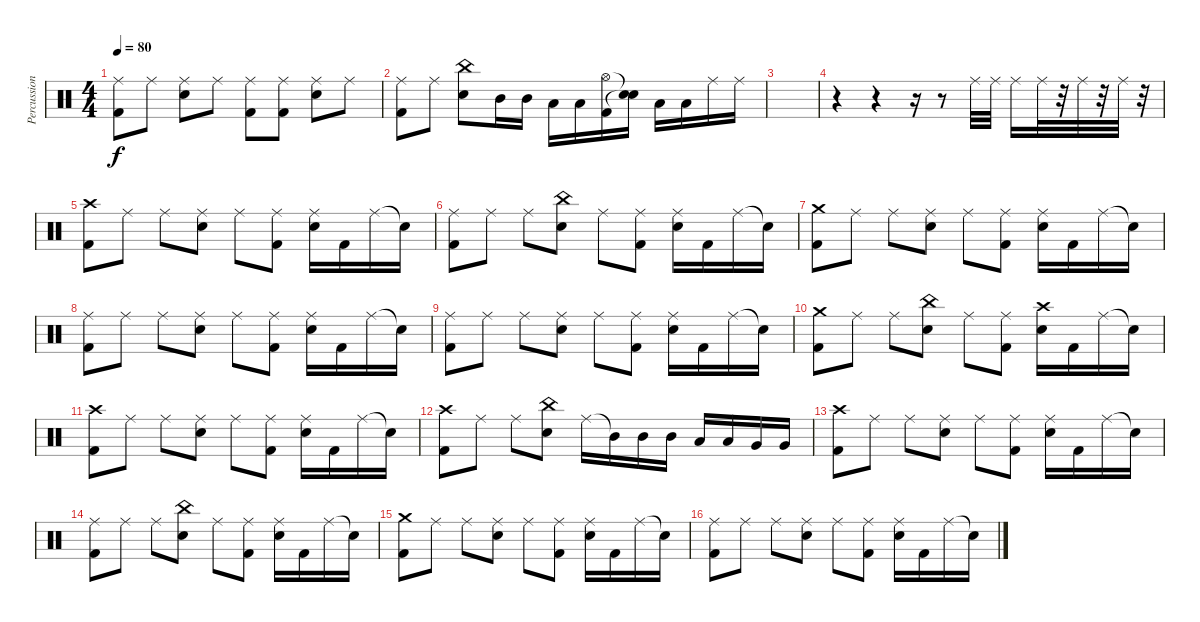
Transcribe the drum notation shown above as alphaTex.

\track ("Percussion" "Percussion") {instrument percussion}
\staff {score}
\articulation defaults
\ts (4 4)
\tempo 80
\clef neutral
\ks c
("Kick (hit) 2" "Ride (middle)").8{dy f} "Ride (middle)".8 ("Electric Snare (hit)" "Ride (middle)").8 "Ride (middle)".8 ("Kick (hit) 2" "Ride (middle)").8 ("Kick (hit) 2" "Ride (middle)").8 ("Electric Snare (hit)" "Ride (middle)").8 "Ride (middle)".8 |
("Kick (hit) 2" "Ride (middle)").8 "Ride (middle)".8 ("Electric Snare (hit)" "China (hit)").8 "Mid Tom (hit)".16 "Mid Tom (hit)".16 "Low Tom (hit)".16 "Low Tom (hit)".16 ("Kick (hit) 2" "Hi-Hat (open)").16 ("Snare (hit)"{t} "Snare (hit)"{t}).16 "Low Tom (hit)".16 "Low Tom (hit)".16 "Ride (middle)".16 "Ride (middle)".16 |
|
r.4 r.4 r.16 r.8 "Ride (middle)".32 "Ride (middle)".32 "Ride (middle)".16 "Ride (middle)".32 r.32 "Ride (middle)".32 r.32 "Ride (middle)".32 r.32 |
("Kick (hit) 2" "Crash high (hit)").8 "Ride (middle)".8 "Ride (middle)".8 ("Electric Snare (hit)" "Ride (middle)").8 "Ride (middle)".8 ("Kick (hit) 2" "Ride (middle)").8 ("Electric Snare (hit)" "Ride (middle)").16 "Kick (hit) 2".16 "Ride (middle)".16 "Snare (hit)"{t}.16 |
("Kick (hit) 2" "Ride (middle)").8 "Ride (middle)".8 "Ride (middle)".8 ("Electric Snare (hit)" "China (hit)").8 "Ride (middle)".8 ("Kick (hit) 2" "Ride (middle)").8 ("Electric Snare (hit)" "Ride (middle)").16 "Kick (hit) 2".16 "Ride (middle)".16 "Snare (hit)"{t}.16 |
("Kick (hit) 2" "Crash medium (hit)").8 "Ride (middle)".8 "Ride (middle)".8 ("Electric Snare (hit)" "Ride (middle)").8 "Ride (middle)".8 ("Kick (hit) 2" "Ride (middle)").8 ("Electric Snare (hit)" "Ride (middle)").16 "Kick (hit) 2".16 "Ride (middle)".16 "Snare (hit)"{t}.16 |
("Kick (hit) 2" "Ride (middle)").8 "Ride (middle)".8 "Ride (middle)".8 ("Electric Snare (hit)" "Ride (middle)").8 "Ride (middle)".8 ("Kick (hit) 2" "Ride (middle)").8 ("Electric Snare (hit)" "Ride (middle)").16 "Kick (hit) 2".16 "Ride (middle)".16 "Snare (hit)"{t}.16 |
("Kick (hit) 2" "Ride (middle)").8 "Ride (middle)".8 "Ride (middle)".8 ("Electric Snare (hit)" "Ride (middle)").8 "Ride (middle)".8 ("Kick (hit) 2" "Ride (middle)").8 ("Electric Snare (hit)" "Ride (middle)").16 "Kick (hit) 2".16 "Ride (middle)".16 "Snare (hit)"{t}.16 |
("Kick (hit) 2" "Crash medium (hit)").8 "Ride (middle)".8 "Ride (middle)".8 ("Electric Snare (hit)" "China (hit)").8 "Ride (middle)".8 ("Kick (hit) 2" "Ride (middle)").8 ("Electric Snare (hit)" "Crash high (hit)").16 "Kick (hit) 2".16 "Ride (middle)".16 "Snare (hit)"{t}.16 |
("Kick (hit) 2" "Crash high (hit)").8 "Ride (middle)".8 "Ride (middle)".8 ("Electric Snare (hit)" "Ride (middle)").8 "Ride (middle)".8 ("Kick (hit) 2" "Ride (middle)").8 ("Electric Snare (hit)" "Ride (middle)").16 "Kick (hit) 2".16 "Ride (middle)".16 "Snare (hit)"{t}.16 |
("Kick (hit) 2" "Crash high (hit)").8 "Ride (middle)".8 "Ride (middle)".8 ("Electric Snare (hit)" "China (hit)").8 "Ride (middle)".16 "Mid Tom (hit)"{t}.16 "Mid Tom (hit)".16 "Mid Tom (hit)".16 "Low Tom (hit)".16 "Low Tom (hit)".16 "Very Low Tom (hit)".16 "Very Low Tom (hit)".16 |
("Kick (hit) 2" "Crash high (hit)").8 "Ride (middle)".8 "Ride (middle)".8 ("Electric Snare (hit)" "Ride (middle)").8 "Ride (middle)".8 ("Kick (hit) 2" "Ride (middle)").8 ("Electric Snare (hit)" "Ride (middle)").16 "Kick (hit) 2".16 "Ride (middle)".16 "Snare (hit)"{t}.16 |
("Kick (hit) 2" "Ride (middle)").8 "Ride (middle)".8 "Ride (middle)".8 ("Electric Snare (hit)" "China (hit)").8 "Ride (middle)".8 ("Kick (hit) 2" "Ride (middle)").8 ("Electric Snare (hit)" "Ride (middle)").16 "Kick (hit) 2".16 "Ride (middle)".16 "Snare (hit)"{t}.16 |
("Kick (hit) 2" "Crash medium (hit)").8 "Ride (middle)".8 "Ride (middle)".8 ("Electric Snare (hit)" "Ride (middle)").8 "Ride (middle)".8 ("Kick (hit) 2" "Ride (middle)").8 ("Electric Snare (hit)" "Ride (middle)").16 "Kick (hit) 2".16 "Ride (middle)".16 "Snare (hit)"{t}.16 |
("Kick (hit) 2" "Ride (middle)").8 "Ride (middle)".8 "Ride (middle)".8 ("Electric Snare (hit)" "Ride (middle)").8 "Ride (middle)".8 ("Kick (hit) 2" "Ride (middle)").8 ("Electric Snare (hit)" "Ride (middle)").16 "Kick (hit) 2".16 "Ride (middle)".16 "Snare (hit)"{t}.16
